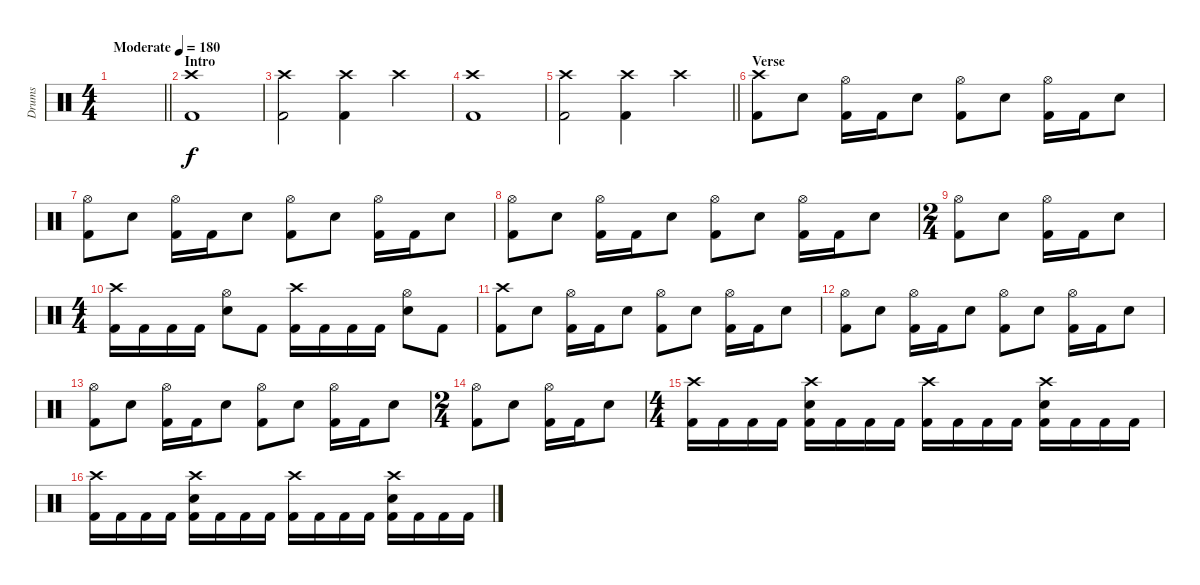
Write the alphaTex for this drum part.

\track ("Drums" "Drums") {instrument percussion}
\staff {score}
\articulation defaults
\ts (4 4)
\tempo (180 "Moderate")
\clef neutral
\barLineRight lightlight
\ks c
|
\section ("" "Intro")
("Crash high (hit)" "Kick (hit) 2").1 |
("Crash high (hit)" "Kick (hit) 2").2 ("Crash high (hit)" "Kick (hit) 2").4 "Crash high (hit)".4 |
("Crash high (hit)" "Kick (hit) 2").1 |
\barLineRight lightlight
("Crash high (hit)" "Kick (hit) 2").2 ("Crash high (hit)" "Kick (hit) 2").4 "Crash high (hit)".4 |
\section ("" "Verse")
("Crash high (hit)" "Kick (hit) 2").8 "Electric Snare (hit)".8 ("Hi-Hat (open)" "Kick (hit) 2").16 "Kick (hit) 2".16 "Electric Snare (hit)".8 ("Hi-Hat (open)" "Kick (hit) 2").8 "Electric Snare (hit)".8 ("Hi-Hat (open)" "Kick (hit) 2").16 "Kick (hit) 2".16 "Electric Snare (hit)".8 |
("Hi-Hat (open)" "Kick (hit) 2").8 "Electric Snare (hit)".8 ("Hi-Hat (open)" "Kick (hit) 2").16 "Kick (hit) 2".16 "Electric Snare (hit)".8 ("Hi-Hat (open)" "Kick (hit) 2").8 "Electric Snare (hit)".8 ("Hi-Hat (open)" "Kick (hit) 2").16 "Kick (hit) 2".16 "Electric Snare (hit)".8 |
("Hi-Hat (open)" "Kick (hit) 2").8 "Electric Snare (hit)".8 ("Hi-Hat (open)" "Kick (hit) 2").16 "Kick (hit) 2".16 "Electric Snare (hit)".8 ("Hi-Hat (open)" "Kick (hit) 2").8 "Electric Snare (hit)".8 ("Hi-Hat (open)" "Kick (hit) 2").16 "Kick (hit) 2".16 "Electric Snare (hit)".8 |
\ts (2 4)
("Hi-Hat (open)" "Kick (hit) 2").8 "Electric Snare (hit)".8 ("Hi-Hat (open)" "Kick (hit) 2").16 "Kick (hit) 2".16 "Electric Snare (hit)".8 |
\ts (4 4)
("Crash high (hit)" "Kick (hit) 2").16 "Kick (hit) 2".16 "Kick (hit) 2".16 "Kick (hit) 2".16 ("Hi-Hat (open)" "Electric Snare (hit)").8 "Kick (hit) 2".8 ("Crash high (hit)" "Kick (hit) 2").16 "Kick (hit) 2".16 "Kick (hit) 2".16 "Kick (hit) 2".16 ("Hi-Hat (open)" "Electric Snare (hit)").8 "Kick (hit) 2".8 |
("Crash high (hit)" "Kick (hit) 2").8 "Electric Snare (hit)".8 ("Hi-Hat (open)" "Kick (hit) 2").16 "Kick (hit) 2".16 "Electric Snare (hit)".8 ("Hi-Hat (open)" "Kick (hit) 2").8 "Electric Snare (hit)".8 ("Hi-Hat (open)" "Kick (hit) 2").16 "Kick (hit) 2".16 "Electric Snare (hit)".8 |
("Hi-Hat (open)" "Kick (hit) 2").8 "Electric Snare (hit)".8 ("Hi-Hat (open)" "Kick (hit) 2").16 "Kick (hit) 2".16 "Electric Snare (hit)".8 ("Hi-Hat (open)" "Kick (hit) 2").8 "Electric Snare (hit)".8 ("Hi-Hat (open)" "Kick (hit) 2").16 "Kick (hit) 2".16 "Electric Snare (hit)".8 |
("Hi-Hat (open)" "Kick (hit) 2").8 "Electric Snare (hit)".8 ("Hi-Hat (open)" "Kick (hit) 2").16 "Kick (hit) 2".16 "Electric Snare (hit)".8 ("Hi-Hat (open)" "Kick (hit) 2").8 "Electric Snare (hit)".8 ("Hi-Hat (open)" "Kick (hit) 2").16 "Kick (hit) 2".16 "Electric Snare (hit)".8 |
\ts (2 4)
("Hi-Hat (open)" "Kick (hit) 2").8 "Electric Snare (hit)".8 ("Hi-Hat (open)" "Kick (hit) 2").16 "Kick (hit) 2".16 "Electric Snare (hit)".8 |
\ts (4 4)
("Crash high (hit)" "Kick (hit) 2").16 "Kick (hit) 2".16 "Kick (hit) 2".16 "Kick (hit) 2".16 ("Crash high (hit)" "Electric Snare (hit)" "Kick (hit) 2").16 "Kick (hit) 2".16 "Kick (hit) 2".16 "Kick (hit) 2".16 ("Crash high (hit)" "Kick (hit) 2").16 "Kick (hit) 2".16 "Kick (hit) 2".16 "Kick (hit) 2".16 ("Crash high (hit)" "Electric Snare (hit)" "Kick (hit) 2").16 "Kick (hit) 2".16 "Kick (hit) 2".16 "Kick (hit) 2".16 |
("Crash high (hit)" "Kick (hit) 2").16 "Kick (hit) 2".16 "Kick (hit) 2".16 "Kick (hit) 2".16 ("Crash high (hit)" "Electric Snare (hit)" "Kick (hit) 2").16 "Kick (hit) 2".16 "Kick (hit) 2".16 "Kick (hit) 2".16 ("Crash high (hit)" "Kick (hit) 2").16 "Kick (hit) 2".16 "Kick (hit) 2".16 "Kick (hit) 2".16 ("Crash high (hit)" "Electric Snare (hit)" "Kick (hit) 2").16 "Kick (hit) 2".16 "Kick (hit) 2".16 "Kick (hit) 2".16
